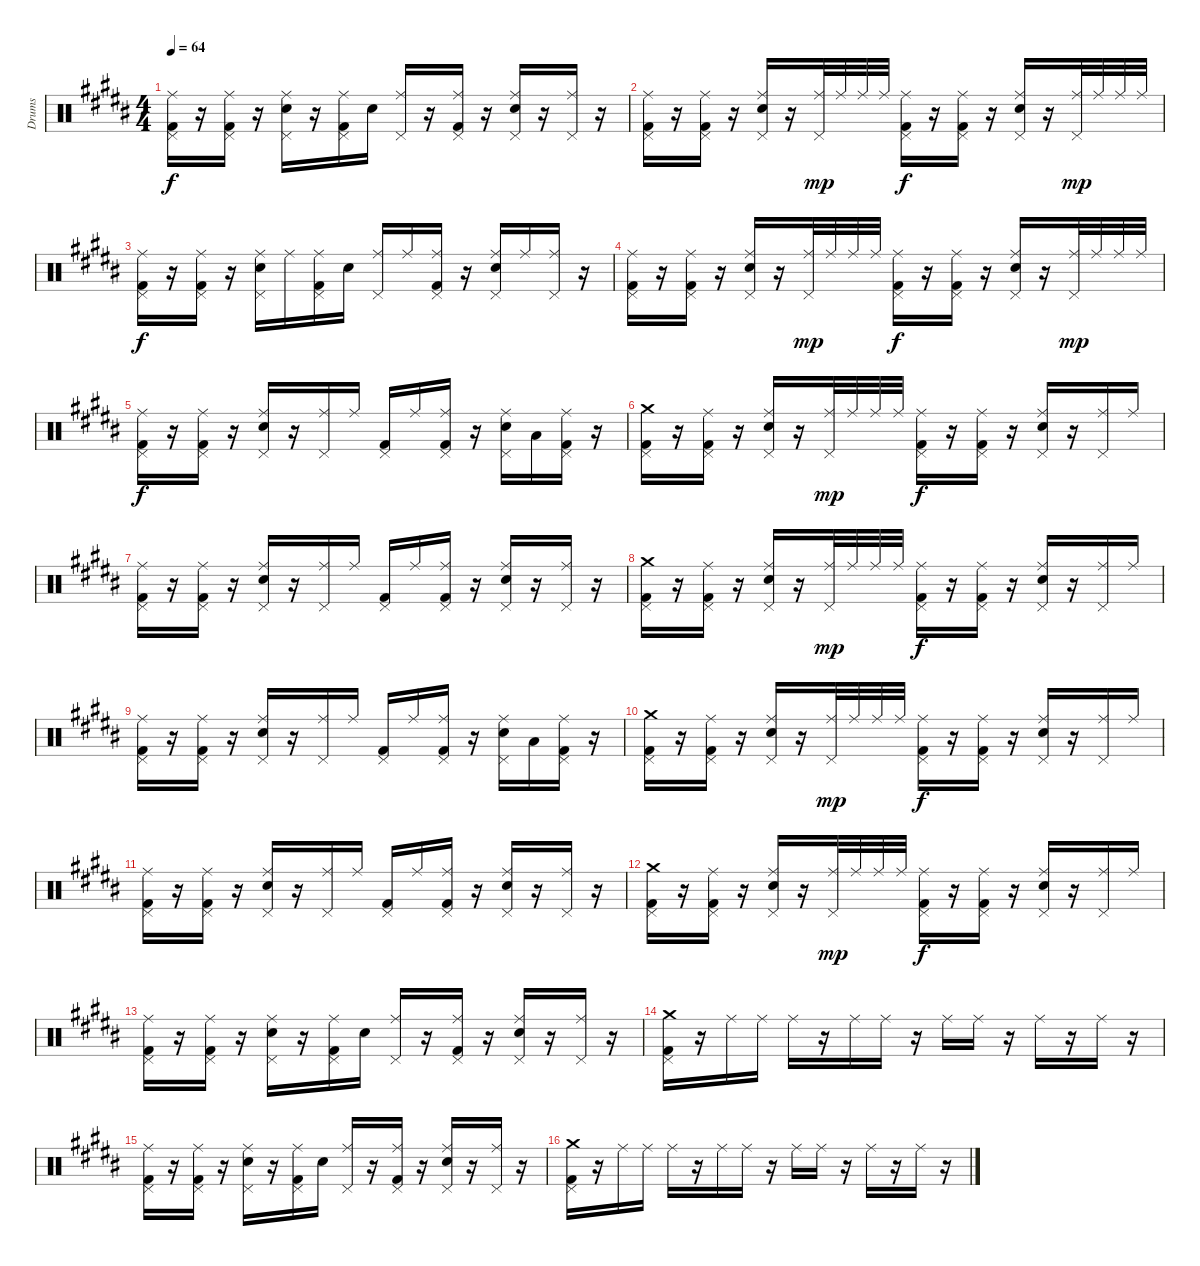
\track ("Drums" "Drums") {instrument percussion}
\staff {score}
\articulation defaults
\ts (4 4)
\tempo 64
\clef neutral
\ks b
("Ride (middle)" "Pedal Hi-Hat (hit)" "Kick (hit) 2").16{dy f} r.16 ("Ride (middle)" "Pedal Hi-Hat (hit)" "Kick (hit) 2").16 r.16 ("Ride (middle)" "Pedal Hi-Hat (hit)" "Snare (hit) 2").16 r.16 ("Ride (middle)" "Pedal Hi-Hat (hit)" "Kick (hit) 2").16 "Snare (hit) 2".16 ("Ride (middle)" "Pedal Hi-Hat (hit)").16 r.16 ("Ride (middle)" "Pedal Hi-Hat (hit)" "Kick (hit) 2").16 r.16 ("Ride (middle)" "Pedal Hi-Hat (hit)" "Snare (hit) 2").16 r.16 ("Ride (middle)" "Pedal Hi-Hat (hit)").16 r.16 |
("Ride (middle)" "Pedal Hi-Hat (hit)" "Kick (hit) 2").16 r.16 ("Ride (middle)" "Pedal Hi-Hat (hit)" "Kick (hit) 2").16 r.16 ("Ride (middle)" "Pedal Hi-Hat (hit)" "Snare (hit) 2").16 r.16 ("Ride (middle)" "Pedal Hi-Hat (hit)").32{dy mp} "Ride (middle)".32 "Ride (middle)".32 "Ride (middle)".32 ("Ride (middle)" "Pedal Hi-Hat (hit)" "Kick (hit) 2").16{dy f} r.16 ("Ride (middle)" "Pedal Hi-Hat (hit)" "Kick (hit) 2").16 r.16 ("Ride (middle)" "Pedal Hi-Hat (hit)" "Snare (hit) 2").16 r.16 ("Ride (middle)" "Pedal Hi-Hat (hit)").32{dy mp} "Ride (middle)".32 "Ride (middle)".32 "Ride (middle)".32 |
("Ride (middle)" "Pedal Hi-Hat (hit)" "Kick (hit) 2").16{dy f} r.16 ("Ride (middle)" "Pedal Hi-Hat (hit)" "Kick (hit) 2").16 r.16 ("Ride (middle)" "Pedal Hi-Hat (hit)" "Snare (hit) 2").16 "Ride (middle)".16 ("Ride (middle)" "Pedal Hi-Hat (hit)" "Kick (hit) 2").16 "Snare (hit) 2".16 ("Ride (middle)" "Pedal Hi-Hat (hit)").16 "Ride (middle)".16 ("Ride (middle)" "Pedal Hi-Hat (hit)" "Kick (hit) 2").16 r.16 ("Ride (middle)" "Pedal Hi-Hat (hit)" "Snare (hit) 2").16 "Ride (middle)".16 ("Ride (middle)" "Pedal Hi-Hat (hit)").16 r.16 |
("Ride (middle)" "Pedal Hi-Hat (hit)" "Kick (hit) 2").16 r.16 ("Ride (middle)" "Pedal Hi-Hat (hit)" "Kick (hit) 2").16 r.16 ("Ride (middle)" "Pedal Hi-Hat (hit)" "Snare (hit) 2").16 r.16 ("Ride (middle)" "Pedal Hi-Hat (hit)").32{dy mp} "Ride (middle)".32 "Ride (middle)".32 "Ride (middle)".32 ("Ride (middle)" "Pedal Hi-Hat (hit)" "Kick (hit) 2").16{dy f} r.16 ("Ride (middle)" "Pedal Hi-Hat (hit)" "Kick (hit) 2").16 r.16 ("Ride (middle)" "Pedal Hi-Hat (hit)" "Snare (hit) 2").16 r.16 ("Ride (middle)" "Pedal Hi-Hat (hit)").32{dy mp} "Ride (middle)".32 "Ride (middle)".32 "Ride (middle)".32 |
("Ride (middle)" "Pedal Hi-Hat (hit)" "Kick (hit) 2").16{dy f} r.16 ("Ride (middle)" "Pedal Hi-Hat (hit)" "Kick (hit) 2").16 r.16 ("Ride (middle)" "Pedal Hi-Hat (hit)" "Snare (hit) 2").16 r.16 ("Ride (middle)" "Pedal Hi-Hat (hit)").16 "Ride (middle)".16 ("Pedal Hi-Hat (hit)" "Kick (hit) 2").16 "Ride (middle)".16 ("Ride (middle)" "Pedal Hi-Hat (hit)" "Kick (hit) 2").16 r.16 ("Ride (middle)" "Pedal Hi-Hat (hit)" "Snare (hit) 2").16 "Low Tom (hit)".16 ("Ride (middle)" "Pedal Hi-Hat (hit)" "Kick (hit) 2").16 r.16 |
("Crash medium (hit)" "Pedal Hi-Hat (hit)" "Kick (hit) 2").16{volume 10} r.16 ("Ride (middle)" "Pedal Hi-Hat (hit)" "Kick (hit) 2").16 r.16 ("Ride (middle)" "Pedal Hi-Hat (hit)" "Snare (hit) 2").16 r.16 ("Ride (middle)" "Pedal Hi-Hat (hit)").32{dy mp} "Ride (middle)".32 "Ride (middle)".32 "Ride (middle)".32 ("Ride (middle)" "Pedal Hi-Hat (hit)" "Kick (hit) 2").16{dy f} r.16 ("Ride (middle)" "Pedal Hi-Hat (hit)" "Kick (hit) 2").16 r.16 ("Ride (middle)" "Pedal Hi-Hat (hit)" "Snare (hit) 2").16 r.16 ("Ride (middle)" "Pedal Hi-Hat (hit)").16 "Ride (middle)".16 |
("Ride (middle)" "Pedal Hi-Hat (hit)" "Kick (hit) 2").16 r.16 ("Ride (middle)" "Pedal Hi-Hat (hit)" "Kick (hit) 2").16 r.16 ("Ride (middle)" "Pedal Hi-Hat (hit)" "Snare (hit) 2").16 r.16 ("Ride (middle)" "Pedal Hi-Hat (hit)").16 "Ride (middle)".16 ("Pedal Hi-Hat (hit)" "Kick (hit) 2").16 "Ride (middle)".16 ("Ride (middle)" "Pedal Hi-Hat (hit)" "Kick (hit) 2").16 r.16 ("Ride (middle)" "Pedal Hi-Hat (hit)" "Snare (hit) 2").16 r.16 ("Ride (middle)" "Pedal Hi-Hat (hit)").16 r.16 |
("Crash medium (hit)" "Pedal Hi-Hat (hit)" "Kick (hit) 2").16 r.16 ("Ride (middle)" "Pedal Hi-Hat (hit)" "Kick (hit) 2").16 r.16 ("Ride (middle)" "Pedal Hi-Hat (hit)" "Snare (hit) 2").16 r.16 ("Ride (middle)" "Pedal Hi-Hat (hit)").32{dy mp} "Ride (middle)".32 "Ride (middle)".32 "Ride (middle)".32 ("Ride (middle)" "Pedal Hi-Hat (hit)" "Kick (hit) 2").16{dy f} r.16 ("Ride (middle)" "Pedal Hi-Hat (hit)" "Kick (hit) 2").16 r.16 ("Ride (middle)" "Pedal Hi-Hat (hit)" "Snare (hit) 2").16 r.16 ("Ride (middle)" "Pedal Hi-Hat (hit)").16 "Ride (middle)".16 |
("Ride (middle)" "Pedal Hi-Hat (hit)" "Kick (hit) 2").16 r.16 ("Ride (middle)" "Pedal Hi-Hat (hit)" "Kick (hit) 2").16 r.16 ("Ride (middle)" "Pedal Hi-Hat (hit)" "Snare (hit) 2").16 r.16 ("Ride (middle)" "Pedal Hi-Hat (hit)").16 "Ride (middle)".16 ("Pedal Hi-Hat (hit)" "Kick (hit) 2").16 "Ride (middle)".16 ("Ride (middle)" "Pedal Hi-Hat (hit)" "Kick (hit) 2").16 r.16 ("Ride (middle)" "Pedal Hi-Hat (hit)" "Snare (hit) 2").16 "Low Tom (hit)".16 ("Ride (middle)" "Pedal Hi-Hat (hit)" "Kick (hit) 2").16 r.16 |
("Crash medium (hit)" "Pedal Hi-Hat (hit)" "Kick (hit) 2").16 r.16 ("Ride (middle)" "Pedal Hi-Hat (hit)" "Kick (hit) 2").16 r.16 ("Ride (middle)" "Pedal Hi-Hat (hit)" "Snare (hit) 2").16 r.16 ("Ride (middle)" "Pedal Hi-Hat (hit)").32{dy mp} "Ride (middle)".32 "Ride (middle)".32 "Ride (middle)".32 ("Ride (middle)" "Pedal Hi-Hat (hit)" "Kick (hit) 2").16{dy f} r.16 ("Ride (middle)" "Pedal Hi-Hat (hit)" "Kick (hit) 2").16 r.16 ("Ride (middle)" "Pedal Hi-Hat (hit)" "Snare (hit) 2").16 r.16 ("Ride (middle)" "Pedal Hi-Hat (hit)").16 "Ride (middle)".16 |
("Ride (middle)" "Pedal Hi-Hat (hit)" "Kick (hit) 2").16 r.16 ("Ride (middle)" "Pedal Hi-Hat (hit)" "Kick (hit) 2").16 r.16 ("Ride (middle)" "Pedal Hi-Hat (hit)" "Snare (hit) 2").16 r.16 ("Ride (middle)" "Pedal Hi-Hat (hit)").16 "Ride (middle)".16 ("Pedal Hi-Hat (hit)" "Kick (hit) 2").16 "Ride (middle)".16 ("Ride (middle)" "Pedal Hi-Hat (hit)" "Kick (hit) 2").16 r.16 ("Ride (middle)" "Pedal Hi-Hat (hit)" "Snare (hit) 2").16 r.16 ("Ride (middle)" "Pedal Hi-Hat (hit)").16 r.16 |
("Crash medium (hit)" "Pedal Hi-Hat (hit)" "Kick (hit) 2").16 r.16 ("Ride (middle)" "Pedal Hi-Hat (hit)" "Kick (hit) 2").16 r.16 ("Ride (middle)" "Pedal Hi-Hat (hit)" "Snare (hit) 2").16 r.16 ("Ride (middle)" "Pedal Hi-Hat (hit)").32{dy mp} "Ride (middle)".32 "Ride (middle)".32 "Ride (middle)".32 ("Ride (middle)" "Pedal Hi-Hat (hit)" "Kick (hit) 2").16{dy f} r.16 ("Ride (middle)" "Pedal Hi-Hat (hit)" "Kick (hit) 2").16 r.16 ("Ride (middle)" "Pedal Hi-Hat (hit)" "Snare (hit) 2").16 r.16 ("Ride (middle)" "Pedal Hi-Hat (hit)").16 "Ride (middle)".16 |
("Ride (middle)" "Pedal Hi-Hat (hit)" "Kick (hit) 2").16 r.16 ("Ride (middle)" "Pedal Hi-Hat (hit)" "Kick (hit) 2").16 r.16 ("Ride (middle)" "Pedal Hi-Hat (hit)" "Snare (hit) 2").16 r.16 ("Ride (middle)" "Pedal Hi-Hat (hit)" "Kick (hit) 2").16 "Snare (hit) 2".16 ("Ride (middle)" "Pedal Hi-Hat (hit)").16 r.16 ("Ride (middle)" "Pedal Hi-Hat (hit)" "Kick (hit) 2").16 r.16 ("Ride (middle)" "Pedal Hi-Hat (hit)" "Snare (hit) 2").16 r.16 ("Ride (middle)" "Pedal Hi-Hat (hit)").16 r.16 |
("Crash medium (hit)" "Pedal Hi-Hat (hit)" "Kick (hit) 2").16 r.16 "Ride (middle)".16 "Ride (middle)".16 "Ride (middle)".16 r.16 "Ride (middle)".16 "Ride (middle)".16 r.16 "Ride (middle)".16 "Ride (middle)".16 r.16 "Ride (middle)".16 r.16 "Ride (middle)".16 r.16 |
("Ride (middle)" "Pedal Hi-Hat (hit)" "Kick (hit) 2").16 r.16 ("Ride (middle)" "Pedal Hi-Hat (hit)" "Kick (hit) 2").16 r.16 ("Ride (middle)" "Pedal Hi-Hat (hit)" "Snare (hit) 2").16 r.16 ("Ride (middle)" "Pedal Hi-Hat (hit)" "Kick (hit) 2").16 "Snare (hit) 2".16 ("Ride (middle)" "Pedal Hi-Hat (hit)").16 r.16 ("Ride (middle)" "Pedal Hi-Hat (hit)" "Kick (hit) 2").16 r.16 ("Ride (middle)" "Pedal Hi-Hat (hit)" "Snare (hit) 2").16 r.16 ("Ride (middle)" "Pedal Hi-Hat (hit)").16 r.16 |
("Crash medium (hit)" "Pedal Hi-Hat (hit)" "Kick (hit) 2").16 r.16 "Ride (middle)".16 "Ride (middle)".16 "Ride (middle)".16 r.16 "Ride (middle)".16 "Ride (middle)".16 r.16 "Ride (middle)".16 "Ride (middle)".16 r.16 "Ride (middle)".16 r.16 "Ride (middle)".16 r.16
